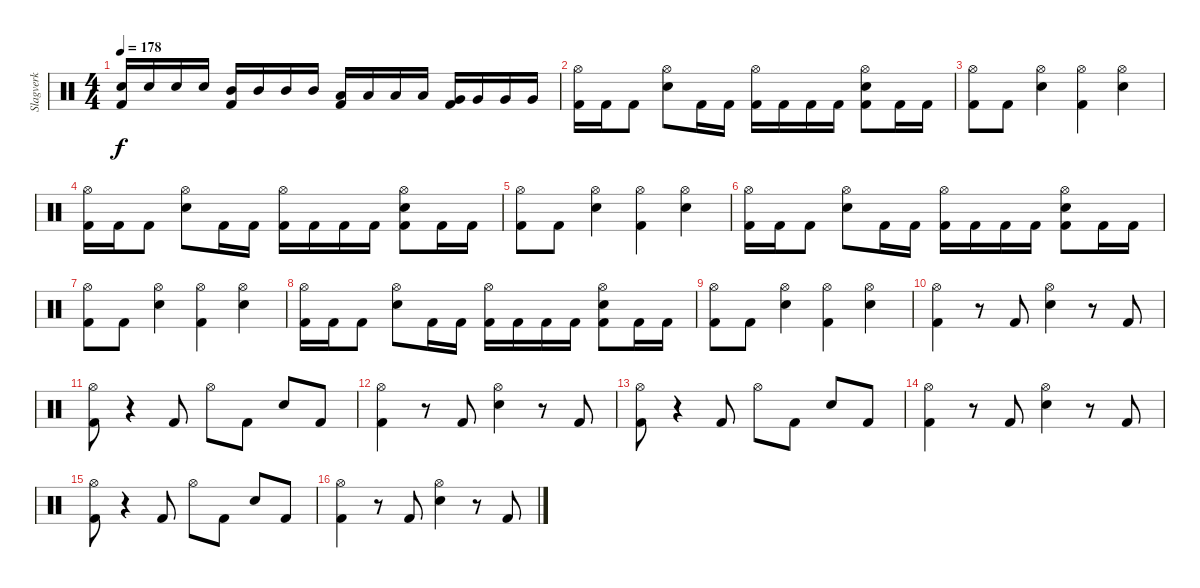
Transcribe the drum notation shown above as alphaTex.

\track ("Slagverk" "Slagverk") {instrument percussion}
\staff {score}
\articulation defaults
\ts (4 4)
\tempo 178
\clef neutral
\ks c
("Electric Snare (hit)" "Kick (hit) 2").16{dy f} "Electric Snare (hit)".16 "Electric Snare (hit)".16 "Electric Snare (hit)".16 ("Mid Tom (hit)" "Kick (hit) 2").16 "Mid Tom (hit)".16 "Mid Tom (hit)".16 "Mid Tom (hit)".16 ("Low Tom (hit)" "Kick (hit) 2").16 "Low Tom (hit)".16 "Low Tom (hit)".16 "Low Tom (hit)".16 ("Very Low Tom (hit)" "Kick (hit) 2").16 "Very Low Tom (hit)".16 "Very Low Tom (hit)".16 "Very Low Tom (hit)".16 |
("Hi-Hat (open)" "Kick (hit) 2").16 "Kick (hit) 2".16 "Kick (hit) 2".8 ("Hi-Hat (open)" "Electric Snare (hit)").8 "Kick (hit) 2".16 "Kick (hit) 2".16 ("Hi-Hat (open)" "Kick (hit) 2").16 "Kick (hit) 2".16 "Kick (hit) 2".16 "Kick (hit) 2".16 ("Hi-Hat (open)" "Electric Snare (hit)" "Kick (hit) 2").8 "Kick (hit) 2".16 "Kick (hit) 2".16 |
("Hi-Hat (open)" "Kick (hit) 2").8 "Kick (hit) 2".8 ("Hi-Hat (open)" "Electric Snare (hit)").4 ("Hi-Hat (open)" "Kick (hit) 2").4 ("Hi-Hat (open)" "Electric Snare (hit)").4 |
("Hi-Hat (open)" "Kick (hit) 2").16 "Kick (hit) 2".16 "Kick (hit) 2".8 ("Hi-Hat (open)" "Electric Snare (hit)").8 "Kick (hit) 2".16 "Kick (hit) 2".16 ("Hi-Hat (open)" "Kick (hit) 2").16 "Kick (hit) 2".16 "Kick (hit) 2".16 "Kick (hit) 2".16 ("Hi-Hat (open)" "Electric Snare (hit)" "Kick (hit) 2").8 "Kick (hit) 2".16 "Kick (hit) 2".16 |
("Hi-Hat (open)" "Kick (hit) 2").8 "Kick (hit) 2".8 ("Hi-Hat (open)" "Electric Snare (hit)").4 ("Hi-Hat (open)" "Kick (hit) 2").4 ("Hi-Hat (open)" "Electric Snare (hit)").4 |
("Hi-Hat (open)" "Kick (hit) 2").16 "Kick (hit) 2".16 "Kick (hit) 2".8 ("Hi-Hat (open)" "Electric Snare (hit)").8 "Kick (hit) 2".16 "Kick (hit) 2".16 ("Hi-Hat (open)" "Kick (hit) 2").16 "Kick (hit) 2".16 "Kick (hit) 2".16 "Kick (hit) 2".16 ("Hi-Hat (open)" "Electric Snare (hit)" "Kick (hit) 2").8 "Kick (hit) 2".16 "Kick (hit) 2".16 |
("Hi-Hat (open)" "Kick (hit) 2").8 "Kick (hit) 2".8 ("Hi-Hat (open)" "Electric Snare (hit)").4 ("Hi-Hat (open)" "Kick (hit) 2").4 ("Hi-Hat (open)" "Electric Snare (hit)").4 |
("Hi-Hat (open)" "Kick (hit) 2").16 "Kick (hit) 2".16 "Kick (hit) 2".8 ("Hi-Hat (open)" "Electric Snare (hit)").8 "Kick (hit) 2".16 "Kick (hit) 2".16 ("Hi-Hat (open)" "Kick (hit) 2").16 "Kick (hit) 2".16 "Kick (hit) 2".16 "Kick (hit) 2".16 ("Hi-Hat (open)" "Electric Snare (hit)" "Kick (hit) 2").8 "Kick (hit) 2".16 "Kick (hit) 2".16 |
("Hi-Hat (open)" "Kick (hit) 2").8 "Kick (hit) 2".8 ("Hi-Hat (open)" "Electric Snare (hit)").4 ("Hi-Hat (open)" "Kick (hit) 2").4 ("Hi-Hat (open)" "Electric Snare (hit)").4 |
("Hi-Hat (open)" "Kick (hit) 2").4 r.8 "Kick (hit) 2".8 ("Hi-Hat (open)" "Electric Snare (hit)").4 r.8 "Kick (hit) 2".8 |
("Hi-Hat (open)" "Kick (hit) 2").8 r.4 "Kick (hit) 2".8 "Hi-Hat (open)".8 "Kick (hit) 2".8 "Electric Snare (hit)".8 "Kick (hit) 2".8 |
("Hi-Hat (open)" "Kick (hit) 2").4 r.8 "Kick (hit) 2".8 ("Hi-Hat (open)" "Electric Snare (hit)").4 r.8 "Kick (hit) 2".8 |
("Hi-Hat (open)" "Kick (hit) 2").8 r.4 "Kick (hit) 2".8 "Hi-Hat (open)".8 "Kick (hit) 2".8 "Electric Snare (hit)".8 "Kick (hit) 2".8 |
("Hi-Hat (open)" "Kick (hit) 2").4 r.8 "Kick (hit) 2".8 ("Hi-Hat (open)" "Electric Snare (hit)").4 r.8 "Kick (hit) 2".8 |
("Hi-Hat (open)" "Kick (hit) 2").8 r.4 "Kick (hit) 2".8 "Hi-Hat (open)".8 "Kick (hit) 2".8 "Electric Snare (hit)".8 "Kick (hit) 2".8 |
("Hi-Hat (open)" "Kick (hit) 2").4 r.8 "Kick (hit) 2".8 ("Hi-Hat (open)" "Electric Snare (hit)").4 r.8 "Kick (hit) 2".8
